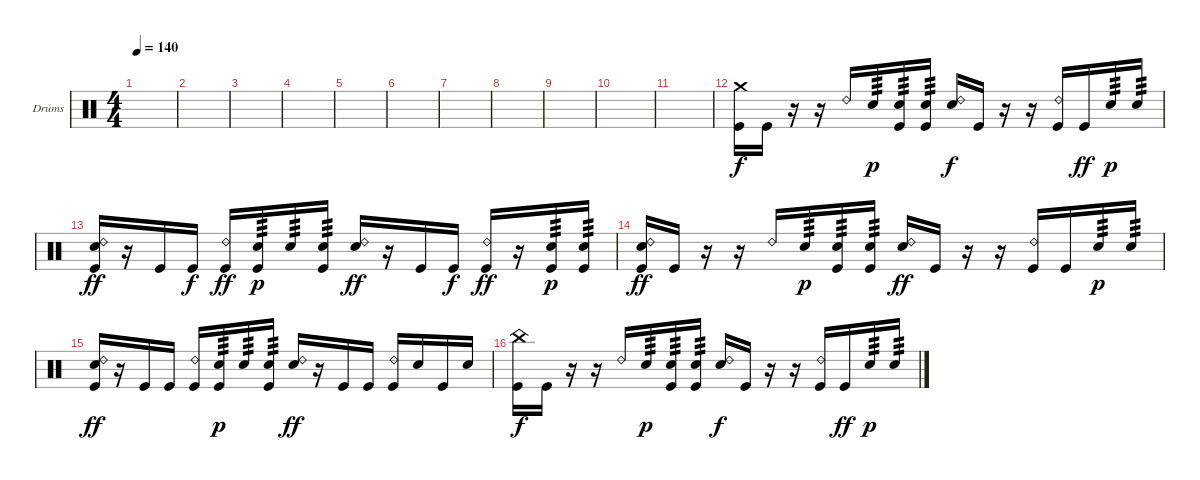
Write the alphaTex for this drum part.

\defaultSystemsLayout 4
\bracketExtendMode groupsimilarinstruments
\firstSystemTrackNameOrientation horizontal
\otherSystemsTrackNameOrientation horizontal
\track ("Drumkit" "Drums") {instrument percussion}
\staff {score}
\articulation defaults
\ts (4 4)
\tempo 140
\clef neutral
\ks c
|
|
|
|
|
|
|
|
|
|
|
("Crash medium (hit)" "Kick (hit)").16{dy f} "Kick (hit)".16 r.16 r.16 "Ride (bell) 2".16 "Snare (hit) 2".16{tp 3 dy p} ("Snare (hit) 2" "Kick (hit)").16{tp 3} ("Snare (hit) 2" "Kick (hit)").16{tp 3} ("Ride (bell) 2" "Snare (hit) 2").16{dy f} "Kick (hit)".16 r.16 r.16 ("Ride (bell) 2" "Kick (hit)").16 "Kick (hit)".16{dy ff} "Snare (hit) 2".16{tp 3 dy p} "Snare (hit) 2".16{tp 3} |
("Ride (bell) 2" "Snare (hit) 2" "Kick (hit)").16{dy ff} r.16 "Kick (hit)".16 "Kick (hit)".16{dy f} ("Ride (bell) 2" "Kick (hit)").16{dy ff} ("Snare (hit) 2" "Kick (hit)").16{tp 3 dy p} "Snare (hit) 2".16{tp 3} ("Snare (hit) 2" "Kick (hit)").16{tp 3} ("Ride (bell) 2" "Snare (hit) 2").16{dy ff} r.16 "Kick (hit)".16 "Kick (hit)".16{dy f} ("Ride (bell) 2" "Kick (hit)").16{dy ff} r.16 ("Snare (hit) 2" "Kick (hit)").16{tp 3 dy p} ("Snare (hit) 2" "Kick (hit)").16{tp 3} |
("Ride (bell) 2" "Snare (hit) 2" "Kick (hit)").16{dy ff} "Kick (hit)".16 r.16 r.16 "Ride (bell) 2".16 "Snare (hit) 2".16{tp 3 dy p} ("Snare (hit) 2" "Kick (hit)").16{tp 3} ("Snare (hit) 2" "Kick (hit)").16{tp 3} ("Ride (bell) 2" "Snare (hit) 2").16{dy ff} "Kick (hit)".16 r.16 r.16 ("Ride (bell) 2" "Kick (hit)").16 "Kick (hit)".16 "Snare (hit) 2".16{tp 3 dy p} "Snare (hit) 2".16{tp 3} |
("Ride (bell) 2" "Snare (hit) 2" "Kick (hit)").16{dy ff} r.16 "Kick (hit)".16 "Kick (hit)".16 ("Ride (bell) 2" "Kick (hit)").16 ("Snare (hit) 2" "Kick (hit)").16{tp 3 dy p} "Snare (hit) 2".16{tp 3} ("Snare (hit) 2" "Kick (hit)").16{tp 3} ("Ride (bell) 2" "Snare (hit) 2").16{dy ff} r.16 "Kick (hit)".16 "Kick (hit)".16 ("Ride (bell) 2" "Kick (hit)").16 "Snare (hit) 2".16 "Kick (hit)".16 "Snare (hit) 2".16 |
("China (hit)" "Kick (hit)").16{dy f} "Kick (hit)".16 r.16 r.16 "Ride (bell) 2".16 "Snare (hit) 2".16{tp 3 dy p} ("Snare (hit) 2" "Kick (hit)").16{tp 3} ("Snare (hit) 2" "Kick (hit)").16{tp 3} ("Ride (bell) 2" "Snare (hit) 2").16{dy f} "Kick (hit)".16 r.16 r.16 ("Ride (bell) 2" "Kick (hit)").16 "Kick (hit)".16{dy ff} "Snare (hit) 2".16{tp 3 dy p} "Snare (hit) 2".16{tp 3}
